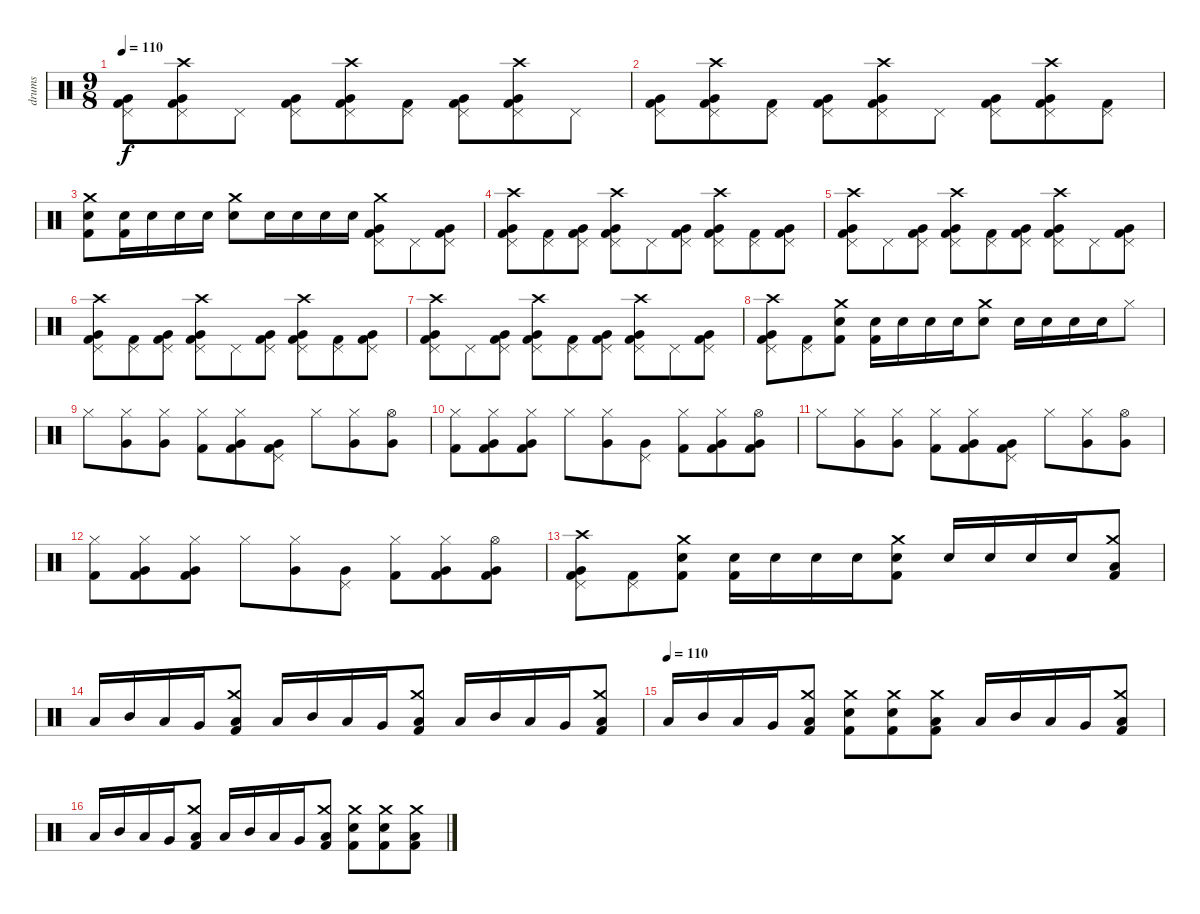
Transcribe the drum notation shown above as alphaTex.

\track ("drums" "drums") {instrument percussion}
\staff {score}
\articulation defaults
\ts (9 8)
\tempo 110
\clef neutral
\ks c
("Very Low Tom (hit)" "Pedal Hi-Hat (hit)" "Kick (hit) 2").8{dy f} ("Very Low Tom (hit)" "Crash high (hit)" "Pedal Hi-Hat (hit)" "Kick (hit) 2").8 "Pedal Hi-Hat (hit)".8 ("Very Low Tom (hit)" "Pedal Hi-Hat (hit)" "Kick (hit) 2").8 ("Very Low Tom (hit)" "Crash high (hit)" "Pedal Hi-Hat (hit)" "Kick (hit) 2").8 ("Pedal Hi-Hat (hit)" "Kick (hit) 2").8 ("Very Low Tom (hit)" "Pedal Hi-Hat (hit)" "Kick (hit) 2").8 ("Very Low Tom (hit)" "Crash high (hit)" "Pedal Hi-Hat (hit)" "Kick (hit) 2").8 "Pedal Hi-Hat (hit)".8 |
("Very Low Tom (hit)" "Pedal Hi-Hat (hit)" "Kick (hit) 2").8 ("Very Low Tom (hit)" "Crash high (hit)" "Pedal Hi-Hat (hit)" "Kick (hit) 2").8 ("Pedal Hi-Hat (hit)" "Kick (hit) 2").8 ("Very Low Tom (hit)" "Pedal Hi-Hat (hit)" "Kick (hit) 2").8 ("Very Low Tom (hit)" "Crash high (hit)" "Pedal Hi-Hat (hit)" "Kick (hit) 2").8 "Pedal Hi-Hat (hit)".8 ("Very Low Tom (hit)" "Pedal Hi-Hat (hit)" "Kick (hit) 2").8 ("Very Low Tom (hit)" "Crash high (hit)" "Pedal Hi-Hat (hit)" "Kick (hit) 2").8 ("Pedal Hi-Hat (hit)" "Kick (hit) 2").8 |
("Electric Snare (hit)" "Crash medium (hit)" "Kick (hit) 2").8 ("Electric Snare (hit)" "Kick (hit) 2").16 "Electric Snare (hit)".16 "Electric Snare (hit)".16 "Electric Snare (hit)".16 ("Electric Snare (hit)" "Crash medium (hit)").8 "Electric Snare (hit)".16 "Electric Snare (hit)".16 "Electric Snare (hit)".16 "Electric Snare (hit)".16 ("Very Low Tom (hit)" "Crash medium (hit)" "Pedal Hi-Hat (hit)" "Kick (hit) 2").8 "Pedal Hi-Hat (hit)".8 ("Very Low Tom (hit)" "Pedal Hi-Hat (hit)" "Kick (hit) 2").8 |
("Very Low Tom (hit)" "Crash high (hit)" "Pedal Hi-Hat (hit)" "Kick (hit) 2").8 ("Pedal Hi-Hat (hit)" "Kick (hit) 2").8 ("Very Low Tom (hit)" "Pedal Hi-Hat (hit)" "Kick (hit) 2").8 ("Very Low Tom (hit)" "Crash high (hit)" "Pedal Hi-Hat (hit)" "Kick (hit) 2").8 "Pedal Hi-Hat (hit)".8 ("Very Low Tom (hit)" "Pedal Hi-Hat (hit)" "Kick (hit) 2").8 ("Very Low Tom (hit)" "Crash high (hit)" "Pedal Hi-Hat (hit)" "Kick (hit) 2").8 ("Pedal Hi-Hat (hit)" "Kick (hit) 2").8 ("Very Low Tom (hit)" "Pedal Hi-Hat (hit)" "Kick (hit) 2").8 |
("Very Low Tom (hit)" "Crash high (hit)" "Pedal Hi-Hat (hit)" "Kick (hit) 2").8 "Pedal Hi-Hat (hit)".8 ("Very Low Tom (hit)" "Pedal Hi-Hat (hit)" "Kick (hit) 2").8 ("Very Low Tom (hit)" "Crash high (hit)" "Pedal Hi-Hat (hit)" "Kick (hit) 2").8 ("Pedal Hi-Hat (hit)" "Kick (hit) 2").8 ("Very Low Tom (hit)" "Pedal Hi-Hat (hit)" "Kick (hit) 2").8 ("Very Low Tom (hit)" "Crash high (hit)" "Pedal Hi-Hat (hit)" "Kick (hit) 2").8 "Pedal Hi-Hat (hit)".8 ("Very Low Tom (hit)" "Pedal Hi-Hat (hit)" "Kick (hit) 2").8 |
("Very Low Tom (hit)" "Crash high (hit)" "Pedal Hi-Hat (hit)" "Kick (hit) 2").8 ("Pedal Hi-Hat (hit)" "Kick (hit) 2").8 ("Very Low Tom (hit)" "Pedal Hi-Hat (hit)" "Kick (hit) 2").8 ("Very Low Tom (hit)" "Crash high (hit)" "Pedal Hi-Hat (hit)" "Kick (hit) 2").8 "Pedal Hi-Hat (hit)".8 ("Very Low Tom (hit)" "Pedal Hi-Hat (hit)" "Kick (hit) 2").8 ("Very Low Tom (hit)" "Crash high (hit)" "Pedal Hi-Hat (hit)" "Kick (hit) 2").8 ("Pedal Hi-Hat (hit)" "Kick (hit) 2").8 ("Very Low Tom (hit)" "Pedal Hi-Hat (hit)" "Kick (hit) 2").8 |
("Very Low Tom (hit)" "Crash high (hit)" "Pedal Hi-Hat (hit)" "Kick (hit) 2").8 "Pedal Hi-Hat (hit)".8 ("Very Low Tom (hit)" "Pedal Hi-Hat (hit)" "Kick (hit) 2").8 ("Very Low Tom (hit)" "Crash high (hit)" "Pedal Hi-Hat (hit)" "Kick (hit) 2").8 ("Pedal Hi-Hat (hit)" "Kick (hit) 2").8 ("Very Low Tom (hit)" "Pedal Hi-Hat (hit)" "Kick (hit) 2").8 ("Very Low Tom (hit)" "Crash high (hit)" "Pedal Hi-Hat (hit)" "Kick (hit) 2").8 "Pedal Hi-Hat (hit)".8 ("Very Low Tom (hit)" "Pedal Hi-Hat (hit)" "Kick (hit) 2").8 |
("Very Low Tom (hit)" "Crash high (hit)" "Pedal Hi-Hat (hit)" "Kick (hit) 2").8 ("Pedal Hi-Hat (hit)" "Kick (hit) 2").8 ("Electric Snare (hit)" "Crash medium (hit)" "Kick (hit) 2").8 ("Electric Snare (hit)" "Kick (hit) 2").16 "Electric Snare (hit)".16 "Electric Snare (hit)".16 "Electric Snare (hit)".16 ("Electric Snare (hit)" "Crash medium (hit)").8 "Electric Snare (hit)".16 "Electric Snare (hit)".16 "Electric Snare (hit)".16 "Electric Snare (hit)".16 "Hi-Hat (closed)".8 |
"Hi-Hat (closed)".8 ("Hi-Hat (closed)" "Very Low Tom (hit)").8 ("Hi-Hat (closed)" "Very Low Tom (hit)").8 ("Hi-Hat (closed)" "Kick (hit) 2").8 ("Hi-Hat (closed)" "Very Low Tom (hit)" "Kick (hit) 2").8 ("Pedal Hi-Hat (hit)" "Very Low Tom (hit)" "Kick (hit) 2").8 "Hi-Hat (closed)".8 ("Hi-Hat (closed)" "Very Low Tom (hit)").8 ("Hi-Hat (open)" "Very Low Tom (hit)").8 |
("Hi-Hat (closed)" "Kick (hit) 2").8 ("Hi-Hat (closed)" "Very Low Tom (hit)" "Kick (hit) 2").8 ("Hi-Hat (closed)" "Very Low Tom (hit)" "Kick (hit) 2").8 "Hi-Hat (closed)".8 ("Hi-Hat (closed)" "Very Low Tom (hit)").8 ("Pedal Hi-Hat (hit)" "Very Low Tom (hit)").8 ("Hi-Hat (closed)" "Kick (hit) 2").8 ("Hi-Hat (closed)" "Very Low Tom (hit)" "Kick (hit) 2").8 ("Hi-Hat (open)" "Very Low Tom (hit)" "Kick (hit) 2").8 |
"Hi-Hat (closed)".8 ("Hi-Hat (closed)" "Very Low Tom (hit)").8 ("Hi-Hat (closed)" "Very Low Tom (hit)").8 ("Hi-Hat (closed)" "Kick (hit) 2").8 ("Hi-Hat (closed)" "Very Low Tom (hit)" "Kick (hit) 2").8 ("Pedal Hi-Hat (hit)" "Very Low Tom (hit)" "Kick (hit) 2").8 "Hi-Hat (closed)".8 ("Hi-Hat (closed)" "Very Low Tom (hit)").8 ("Hi-Hat (open)" "Very Low Tom (hit)").8 |
("Hi-Hat (closed)" "Kick (hit) 2").8 ("Hi-Hat (closed)" "Very Low Tom (hit)" "Kick (hit) 2").8 ("Hi-Hat (closed)" "Very Low Tom (hit)" "Kick (hit) 2").8 "Hi-Hat (closed)".8 ("Hi-Hat (closed)" "Very Low Tom (hit)").8 ("Pedal Hi-Hat (hit)" "Very Low Tom (hit)").8 ("Hi-Hat (closed)" "Kick (hit) 2").8 ("Hi-Hat (closed)" "Very Low Tom (hit)" "Kick (hit) 2").8 ("Hi-Hat (open)" "Very Low Tom (hit)" "Kick (hit) 2").8 |
("Very Low Tom (hit)" "Crash high (hit)" "Pedal Hi-Hat (hit)" "Kick (hit) 2").8 ("Pedal Hi-Hat (hit)" "Kick (hit) 2").8 ("Electric Snare (hit)" "Crash medium (hit)" "Kick (hit) 2").8 ("Electric Snare (hit)" "Kick (hit) 2").16 "Electric Snare (hit)".16 "Electric Snare (hit)".16 "Electric Snare (hit)".16 ("Electric Snare (hit)" "Crash medium (hit)" "Kick (hit) 2").8 "Electric Snare (hit)".16 "Electric Snare (hit)".16 "Electric Snare (hit)".16 "Electric Snare (hit)".16 ("Low Floor Tom (hit)" "Crash medium (hit)" "Kick (hit) 2").8 |
"Low Tom (hit)".16 "Mid Tom (hit)".16 "Low Tom (hit)".16 "Very Low Tom (hit)".16 ("Low Floor Tom (hit)" "Crash medium (hit)" "Kick (hit) 2").8 "Low Tom (hit)".16 "Mid Tom (hit)".16 "Low Tom (hit)".16 "Very Low Tom (hit)".16 ("Low Floor Tom (hit)" "Crash medium (hit)" "Kick (hit) 2").8 "Low Tom (hit)".16 "Mid Tom (hit)".16 "Low Tom (hit)".16 "Very Low Tom (hit)".16 ("Low Floor Tom (hit)" "Crash medium (hit)" "Kick (hit) 2").8 |
\tempo (110)
"Low Tom (hit)".16 "Mid Tom (hit)".16 "Low Tom (hit)".16 "Very Low Tom (hit)".16 ("Low Floor Tom (hit)" "Crash medium (hit)" "Kick (hit) 2").8 ("Electric Snare (hit)" "Crash medium (hit)" "Kick (hit) 2").8 ("Electric Snare (hit)" "Crash medium (hit)" "Kick (hit) 2").8 ("Low Floor Tom (hit)" "Crash medium (hit)" "Kick (hit) 2").8 "Low Tom (hit)".16 "Mid Tom (hit)".16 "Low Tom (hit)".16 "Very Low Tom (hit)".16 ("Low Floor Tom (hit)" "Crash medium (hit)" "Kick (hit) 2").8 |
"Low Tom (hit)".16 "Mid Tom (hit)".16 "Low Tom (hit)".16 "Very Low Tom (hit)".16 ("Low Floor Tom (hit)" "Crash medium (hit)" "Kick (hit) 2").8 "Low Tom (hit)".16 "Mid Tom (hit)".16 "Low Tom (hit)".16 "Very Low Tom (hit)".16 ("Low Floor Tom (hit)" "Crash medium (hit)" "Kick (hit) 2").8 ("Electric Snare (hit)" "Crash medium (hit)" "Kick (hit) 2").8 ("Electric Snare (hit)" "Crash medium (hit)" "Kick (hit) 2").8 ("Low Floor Tom (hit)" "Crash medium (hit)" "Kick (hit) 2").8
